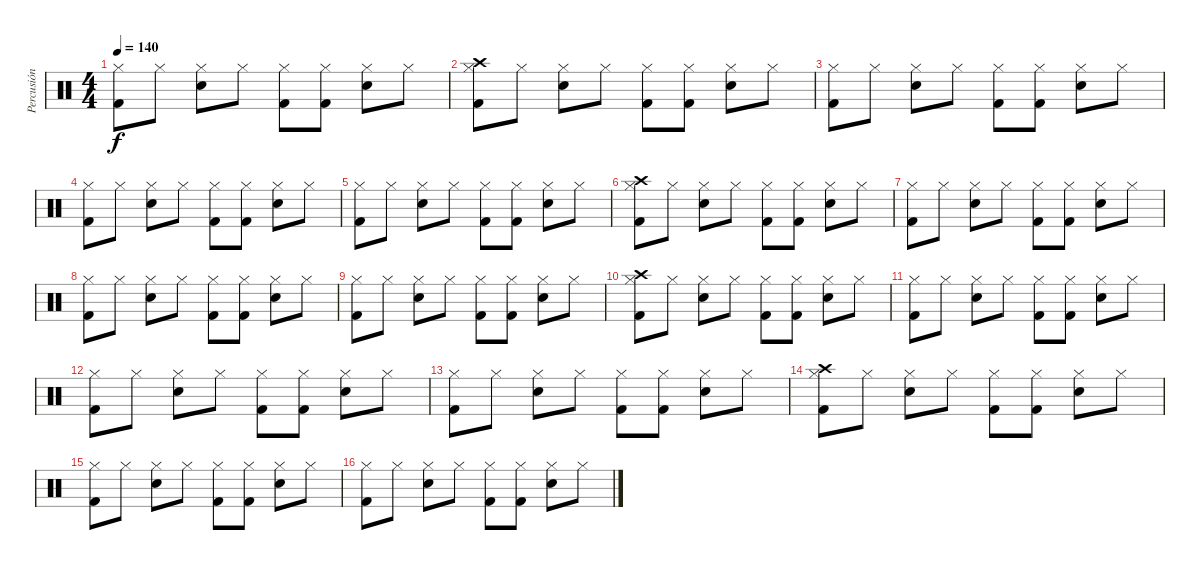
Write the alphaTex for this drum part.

\track ("Percusión" "Percusión") {instrument percussion}
\staff {score}
\articulation defaults
\ts (4 4)
\tempo 140
\clef neutral
\ks c
("Hi-Hat (closed)" "Kick (hit) 2").8{dy f} "Hi-Hat (closed)".8 ("Hi-Hat (closed)" "Snare (hit) 2").8 "Hi-Hat (closed)".8 ("Hi-Hat (closed)" "Kick (hit) 2").8 ("Hi-Hat (closed)" "Kick (hit) 2").8 ("Hi-Hat (closed)" "Snare (hit) 2").8 "Hi-Hat (closed)".8 |
("Crash high (hit)" "Hi-Hat (closed)" "Kick (hit) 2").8 "Hi-Hat (closed)".8 ("Hi-Hat (closed)" "Snare (hit) 2").8 "Hi-Hat (closed)".8 ("Hi-Hat (closed)" "Kick (hit) 2").8 ("Hi-Hat (closed)" "Kick (hit) 2").8 ("Hi-Hat (closed)" "Snare (hit) 2").8 "Hi-Hat (closed)".8 |
("Hi-Hat (closed)" "Kick (hit) 2").8 "Hi-Hat (closed)".8 ("Hi-Hat (closed)" "Snare (hit) 2").8 "Hi-Hat (closed)".8 ("Hi-Hat (closed)" "Kick (hit) 2").8 ("Hi-Hat (closed)" "Kick (hit) 2").8 ("Hi-Hat (closed)" "Snare (hit) 2").8 "Hi-Hat (closed)".8 |
("Hi-Hat (closed)" "Kick (hit) 2").8 "Hi-Hat (closed)".8 ("Hi-Hat (closed)" "Snare (hit) 2").8 "Hi-Hat (closed)".8 ("Hi-Hat (closed)" "Kick (hit) 2").8 ("Hi-Hat (closed)" "Kick (hit) 2").8 ("Hi-Hat (closed)" "Snare (hit) 2").8 "Hi-Hat (closed)".8 |
("Hi-Hat (closed)" "Kick (hit) 2").8 "Hi-Hat (closed)".8 ("Hi-Hat (closed)" "Snare (hit) 2").8 "Hi-Hat (closed)".8 ("Hi-Hat (closed)" "Kick (hit) 2").8 ("Hi-Hat (closed)" "Kick (hit) 2").8 ("Hi-Hat (closed)" "Snare (hit) 2").8 "Hi-Hat (closed)".8 |
("Crash high (hit)" "Hi-Hat (closed)" "Kick (hit) 2").8{volume 14} "Hi-Hat (closed)".8 ("Hi-Hat (closed)" "Snare (hit) 2").8 "Hi-Hat (closed)".8 ("Hi-Hat (closed)" "Kick (hit) 2").8 ("Hi-Hat (closed)" "Kick (hit) 2").8 ("Hi-Hat (closed)" "Snare (hit) 2").8 "Hi-Hat (closed)".8 |
("Hi-Hat (closed)" "Kick (hit) 2").8{volume 12} "Hi-Hat (closed)".8 ("Hi-Hat (closed)" "Snare (hit) 2").8 "Hi-Hat (closed)".8 ("Hi-Hat (closed)" "Kick (hit) 2").8 ("Hi-Hat (closed)" "Kick (hit) 2").8 ("Hi-Hat (closed)" "Snare (hit) 2").8 "Hi-Hat (closed)".8 |
("Hi-Hat (closed)" "Kick (hit) 2").8{volume 10} "Hi-Hat (closed)".8 ("Hi-Hat (closed)" "Snare (hit) 2").8 "Hi-Hat (closed)".8 ("Hi-Hat (closed)" "Kick (hit) 2").8 ("Hi-Hat (closed)" "Kick (hit) 2").8 ("Hi-Hat (closed)" "Snare (hit) 2").8 "Hi-Hat (closed)".8 |
("Hi-Hat (closed)" "Kick (hit) 2").8{volume 8} "Hi-Hat (closed)".8 ("Hi-Hat (closed)" "Snare (hit) 2").8 "Hi-Hat (closed)".8 ("Hi-Hat (closed)" "Kick (hit) 2").8 ("Hi-Hat (closed)" "Kick (hit) 2").8 ("Hi-Hat (closed)" "Snare (hit) 2").8 "Hi-Hat (closed)".8 |
("Crash high (hit)" "Hi-Hat (closed)" "Kick (hit) 2").8{volume 6} "Hi-Hat (closed)".8 ("Hi-Hat (closed)" "Snare (hit) 2").8 "Hi-Hat (closed)".8 ("Hi-Hat (closed)" "Kick (hit) 2").8 ("Hi-Hat (closed)" "Kick (hit) 2").8 ("Hi-Hat (closed)" "Snare (hit) 2").8 "Hi-Hat (closed)".8 |
("Hi-Hat (closed)" "Kick (hit) 2").8{volume 4} "Hi-Hat (closed)".8 ("Hi-Hat (closed)" "Snare (hit) 2").8 "Hi-Hat (closed)".8 ("Hi-Hat (closed)" "Kick (hit) 2").8 ("Hi-Hat (closed)" "Kick (hit) 2").8 ("Hi-Hat (closed)" "Snare (hit) 2").8 "Hi-Hat (closed)".8 |
("Hi-Hat (closed)" "Kick (hit) 2").8{volume 2} "Hi-Hat (closed)".8 ("Hi-Hat (closed)" "Snare (hit) 2").8 "Hi-Hat (closed)".8 ("Hi-Hat (closed)" "Kick (hit) 2").8 ("Hi-Hat (closed)" "Kick (hit) 2").8 ("Hi-Hat (closed)" "Snare (hit) 2").8 "Hi-Hat (closed)".8 |
("Hi-Hat (closed)" "Kick (hit) 2").8 "Hi-Hat (closed)".8 ("Hi-Hat (closed)" "Snare (hit) 2").8 "Hi-Hat (closed)".8 ("Hi-Hat (closed)" "Kick (hit) 2").8 ("Hi-Hat (closed)" "Kick (hit) 2").8 ("Hi-Hat (closed)" "Snare (hit) 2").8 "Hi-Hat (closed)".8 |
("Crash high (hit)" "Hi-Hat (closed)" "Kick (hit) 2").8{volume 1} "Hi-Hat (closed)".8 ("Hi-Hat (closed)" "Snare (hit) 2").8 "Hi-Hat (closed)".8 ("Hi-Hat (closed)" "Kick (hit) 2").8 ("Hi-Hat (closed)" "Kick (hit) 2").8 ("Hi-Hat (closed)" "Snare (hit) 2").8 "Hi-Hat (closed)".8 |
("Hi-Hat (closed)" "Kick (hit) 2").8 "Hi-Hat (closed)".8 ("Hi-Hat (closed)" "Snare (hit) 2").8 "Hi-Hat (closed)".8 ("Hi-Hat (closed)" "Kick (hit) 2").8 ("Hi-Hat (closed)" "Kick (hit) 2").8 ("Hi-Hat (closed)" "Snare (hit) 2").8 "Hi-Hat (closed)".8 |
("Hi-Hat (closed)" "Kick (hit) 2").8 "Hi-Hat (closed)".8 ("Hi-Hat (closed)" "Snare (hit) 2").8 "Hi-Hat (closed)".8 ("Hi-Hat (closed)" "Kick (hit) 2").8 ("Hi-Hat (closed)" "Kick (hit) 2").8 ("Hi-Hat (closed)" "Snare (hit) 2").8 "Hi-Hat (closed)".8
